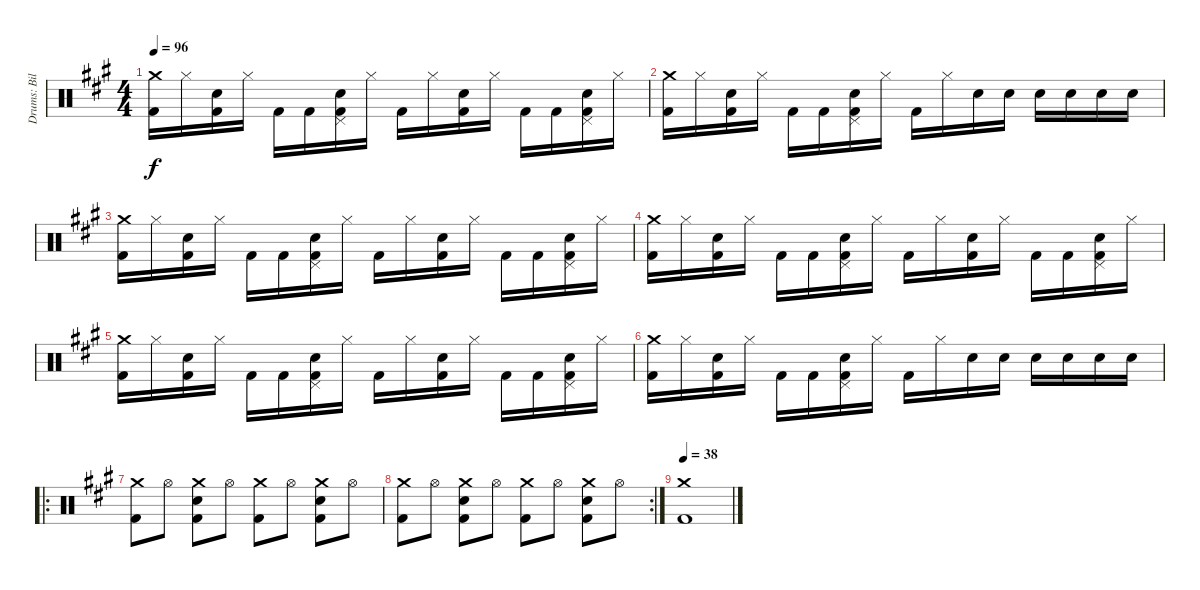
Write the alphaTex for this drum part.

\track ("Drums: Bill" "Drums: Bil") {instrument percussion}
\staff {score}
\articulation defaults
\ts (4 4)
\tempo 96
\clef neutral
\ks a
("Crash medium (hit)" "Kick (hit) 2").16{dy f} "Hi-Hat (closed)".16 ("Snare (hit) 2" "Kick (hit) 2").16 "Hi-Hat (closed)".16 "Kick (hit) 2".16 "Kick (hit) 2".16 ("Pedal Hi-Hat (hit)" "Snare (hit) 2" "Kick (hit) 2").16 "Hi-Hat (closed)".16 "Kick (hit) 2".16 "Hi-Hat (closed)".16 ("Snare (hit) 2" "Kick (hit) 2").16 "Hi-Hat (closed)".16 "Kick (hit) 2".16 "Kick (hit) 2".16 ("Pedal Hi-Hat (hit)" "Snare (hit) 2" "Kick (hit) 2").16 "Hi-Hat (closed)".16 |
("Crash medium (hit)" "Kick (hit) 2").16 "Hi-Hat (closed)".16 ("Snare (hit) 2" "Kick (hit) 2").16 "Hi-Hat (closed)".16 "Kick (hit) 2".16 "Kick (hit) 2".16 ("Pedal Hi-Hat (hit)" "Snare (hit) 2" "Kick (hit) 2").16 "Hi-Hat (closed)".16 "Kick (hit) 2".16 "Hi-Hat (closed)".16 "Snare (hit) 2".16 "Snare (hit) 2".16 "Snare (hit) 2".16 "Snare (hit) 2".16 "Snare (hit) 2".16 "Snare (hit) 2".16 |
("Crash medium (hit)" "Kick (hit) 2").16 "Hi-Hat (closed)".16 ("Snare (hit) 2" "Kick (hit) 2").16 "Hi-Hat (closed)".16 "Kick (hit) 2".16 "Kick (hit) 2".16 ("Pedal Hi-Hat (hit)" "Snare (hit) 2" "Kick (hit) 2").16 "Hi-Hat (closed)".16 "Kick (hit) 2".16 "Hi-Hat (closed)".16 ("Snare (hit) 2" "Kick (hit) 2").16 "Hi-Hat (closed)".16 "Kick (hit) 2".16 "Kick (hit) 2".16 ("Pedal Hi-Hat (hit)" "Snare (hit) 2" "Kick (hit) 2").16 "Hi-Hat (closed)".16 |
("Crash medium (hit)" "Kick (hit) 2").16 "Hi-Hat (closed)".16 ("Snare (hit) 2" "Kick (hit) 2").16 "Hi-Hat (closed)".16 "Kick (hit) 2".16 "Kick (hit) 2".16 ("Pedal Hi-Hat (hit)" "Snare (hit) 2" "Kick (hit) 2").16 "Hi-Hat (closed)".16 "Kick (hit) 2".16 "Hi-Hat (closed)".16 ("Snare (hit) 2" "Kick (hit) 2").16 "Hi-Hat (closed)".16 "Kick (hit) 2".16 "Kick (hit) 2".16 ("Pedal Hi-Hat (hit)" "Snare (hit) 2" "Kick (hit) 2").16 "Hi-Hat (closed)".16 |
("Crash medium (hit)" "Kick (hit) 2").16 "Hi-Hat (closed)".16 ("Snare (hit) 2" "Kick (hit) 2").16 "Hi-Hat (closed)".16 "Kick (hit) 2".16 "Kick (hit) 2".16 ("Pedal Hi-Hat (hit)" "Snare (hit) 2" "Kick (hit) 2").16 "Hi-Hat (closed)".16 "Kick (hit) 2".16 "Hi-Hat (closed)".16 ("Snare (hit) 2" "Kick (hit) 2").16 "Hi-Hat (closed)".16 "Kick (hit) 2".16 "Kick (hit) 2".16 ("Pedal Hi-Hat (hit)" "Snare (hit) 2" "Kick (hit) 2").16 "Hi-Hat (closed)".16 |
("Crash medium (hit)" "Kick (hit) 2").16 "Hi-Hat (closed)".16 ("Snare (hit) 2" "Kick (hit) 2").16 "Hi-Hat (closed)".16 "Kick (hit) 2".16 "Kick (hit) 2".16 ("Pedal Hi-Hat (hit)" "Snare (hit) 2" "Kick (hit) 2").16 "Hi-Hat (closed)".16 "Kick (hit) 2".16 "Hi-Hat (closed)".16 "Snare (hit) 2".16 "Snare (hit) 2".16 "Snare (hit) 2".16 "Snare (hit) 2".16 "Snare (hit) 2".16 "Snare (hit) 2".16 |
\ro
("Crash medium (hit)" "Kick (hit) 2").8 "Hi-Hat (open)".8 ("Crash medium (hit)" "Snare (hit) 2" "Kick (hit) 2").8 "Hi-Hat (open)".8 ("Crash medium (hit)" "Kick (hit) 2").8 "Hi-Hat (open)".8 ("Crash medium (hit)" "Snare (hit) 2" "Kick (hit) 2").8 "Hi-Hat (open)".8 |
\rc 2
("Crash medium (hit)" "Kick (hit) 2").8 "Hi-Hat (open)".8 ("Crash medium (hit)" "Snare (hit) 2" "Kick (hit) 2").8 "Hi-Hat (open)".8 ("Crash medium (hit)" "Kick (hit) 2").8 "Hi-Hat (open)".8 ("Crash medium (hit)" "Snare (hit) 2" "Kick (hit) 2").8 "Hi-Hat (open)".8 |
\tempo 38
("Crash medium (hit)" "Kick (hit) 2").1
